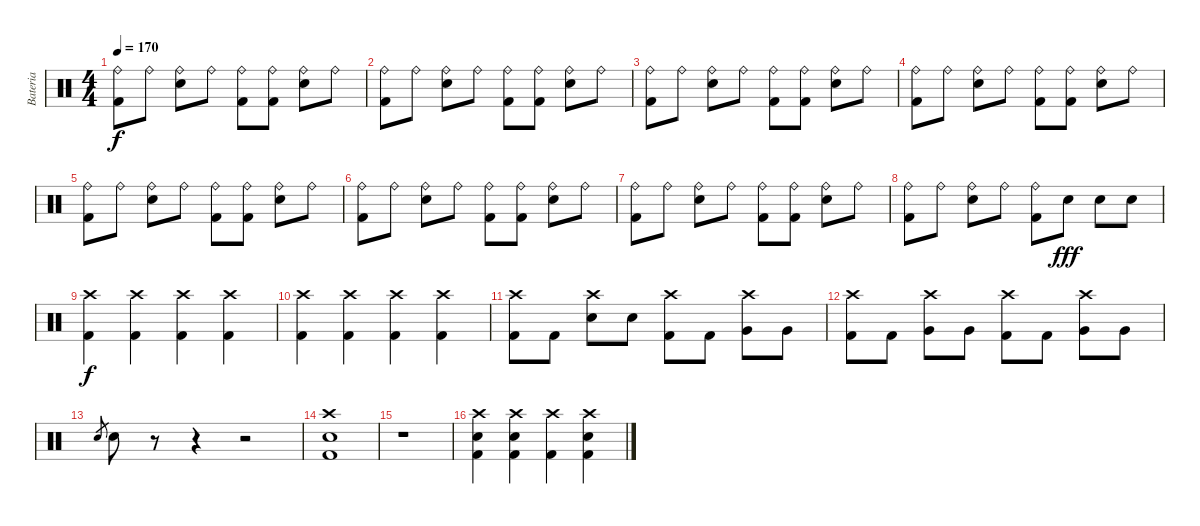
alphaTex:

\track ("Bateria" "Bateria") {instrument percussion}
\staff {score}
\articulation defaults
\ts (4 4)
\tempo 170
\clef neutral
\ks c
("Ride (bell)" "Kick (hit) 2").8{dy f} "Ride (bell)".8 ("Ride (bell)" "Snare (hit) 2").8 "Ride (bell)".8 ("Ride (bell)" "Kick (hit) 2").8 ("Ride (bell)" "Kick (hit) 2").8 ("Ride (bell)" "Snare (hit) 2").8 "Ride (bell)".8 |
("Ride (bell)" "Kick (hit) 2").8 "Ride (bell)".8 ("Ride (bell)" "Snare (hit) 2").8 "Ride (bell)".8 ("Ride (bell)" "Kick (hit) 2").8 ("Ride (bell)" "Kick (hit) 2").8 ("Ride (bell)" "Snare (hit) 2").8 "Ride (bell)".8 |
("Ride (bell)" "Kick (hit) 2").8 "Ride (bell)".8 ("Ride (bell)" "Snare (hit) 2").8 "Ride (bell)".8 ("Ride (bell)" "Kick (hit) 2").8 ("Ride (bell)" "Kick (hit) 2").8 ("Ride (bell)" "Snare (hit) 2").8 "Ride (bell)".8 |
("Ride (bell)" "Kick (hit) 2").8 "Ride (bell)".8 ("Ride (bell)" "Snare (hit) 2").8 "Ride (bell)".8 ("Ride (bell)" "Kick (hit) 2").8 ("Ride (bell)" "Kick (hit) 2").8 ("Ride (bell)" "Snare (hit) 2").8 "Ride (bell)".8 |
("Ride (bell)" "Kick (hit) 2").8 "Ride (bell)".8 ("Ride (bell)" "Snare (hit) 2").8 "Ride (bell)".8 ("Ride (bell)" "Kick (hit) 2").8 ("Ride (bell)" "Kick (hit) 2").8 ("Ride (bell)" "Snare (hit) 2").8 "Ride (bell)".8 |
("Ride (bell)" "Kick (hit) 2").8 "Ride (bell)".8 ("Ride (bell)" "Snare (hit) 2").8 "Ride (bell)".8 ("Ride (bell)" "Kick (hit) 2").8 ("Ride (bell)" "Kick (hit) 2").8 ("Ride (bell)" "Snare (hit) 2").8 "Ride (bell)".8 |
("Ride (bell)" "Kick (hit) 2").8 "Ride (bell)".8 ("Ride (bell)" "Snare (hit) 2").8 "Ride (bell)".8 ("Ride (bell)" "Kick (hit) 2").8 ("Ride (bell)" "Kick (hit) 2").8 ("Ride (bell)" "Snare (hit) 2").8 "Ride (bell)".8 |
("Ride (bell)" "Kick (hit) 2").8 "Ride (bell)".8 ("Ride (bell)" "Snare (hit) 2").8 "Ride (bell)".8 ("Ride (bell)" "Kick (hit) 2").8 "Snare (hit) 2".8{dy fff} "Snare (hit) 2".8 "Snare (hit) 2".8 |
("Crash high (hit)" "Kick (hit) 2").4{dy f} ("Crash high (hit)" "Kick (hit) 2").4 ("Crash high (hit)" "Kick (hit) 2").4 ("Crash high (hit)" "Kick (hit) 2").4 |
("Crash high (hit)" "Kick (hit) 2").4 ("Crash high (hit)" "Kick (hit) 2").4 ("Crash high (hit)" "Kick (hit) 2").4 ("Crash high (hit)" "Kick (hit) 2").4 |
("Crash high (hit)" "Kick (hit) 2").8 "Kick (hit) 2".8 ("Crash high (hit)" "Snare (hit) 2").8 "Snare (hit) 2".8 ("Crash high (hit)" "Kick (hit) 2").8 "Kick (hit) 2".8 ("Crash high (hit)" "Very Low Tom (hit)").8 "Very Low Tom (hit)".8 |
("Crash high (hit)" "Kick (hit) 2").8 "Kick (hit) 2".8 ("Crash high (hit)" "Very Low Tom (hit)").8 "Very Low Tom (hit)".8 ("Crash high (hit)" "Kick (hit) 2").8 "Kick (hit) 2".8 ("Crash high (hit)" "Very Low Tom (hit)").8 "Very Low Tom (hit)".8 |
"Snare (hit) 2".8{gr} "Snare (hit) 2".8 r.8 r.4 r.2 |
("Crash high (hit)" "Snare (hit) 2" "Kick (hit) 2").1 |
r.1 |
("Crash high (hit)" "Snare (hit) 2" "Kick (hit) 2").4 ("Crash high (hit)" "Snare (hit) 2" "Kick (hit) 2").4 ("Crash high (hit)" "Kick (hit) 2").4 ("Crash high (hit)" "Snare (hit) 2" "Kick (hit) 2").4
